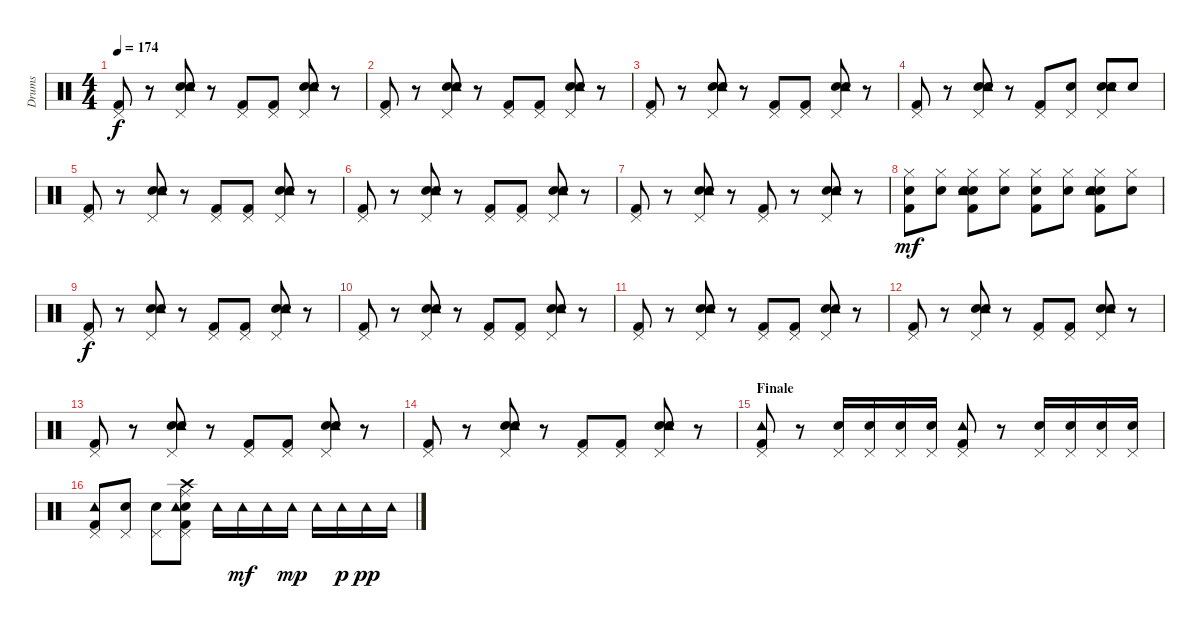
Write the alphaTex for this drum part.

\track ("Drums" "Drums") {instrument percussion}
\staff {score}
\articulation defaults
\ts (4 4)
\tempo 174
\clef neutral
\ks c
("Kick (hit) 2" "Pedal Hi-Hat (hit)").8{dy f} r.8 ("Snare (hit) 2" "Pedal Hi-Hat (hit)" "Hand Clap (hit)" "Tambourine (hit)").8 r.8 ("Kick (hit) 2" "Pedal Hi-Hat (hit)").8 ("Kick (hit) 2" "Pedal Hi-Hat (hit)").8 ("Snare (hit) 2" "Pedal Hi-Hat (hit)" "Hand Clap (hit)" "Tambourine (hit)").8 r.8 |
("Kick (hit) 2" "Pedal Hi-Hat (hit)").8 r.8 ("Snare (hit) 2" "Pedal Hi-Hat (hit)" "Hand Clap (hit)" "Tambourine (hit)").8 r.8 ("Kick (hit) 2" "Pedal Hi-Hat (hit)").8 ("Kick (hit) 2" "Pedal Hi-Hat (hit)").8 ("Snare (hit) 2" "Pedal Hi-Hat (hit)" "Hand Clap (hit)" "Tambourine (hit)").8 r.8 |
("Kick (hit) 2" "Pedal Hi-Hat (hit)").8 r.8 ("Snare (hit) 2" "Pedal Hi-Hat (hit)" "Hand Clap (hit)" "Tambourine (hit)").8 r.8 ("Kick (hit) 2" "Pedal Hi-Hat (hit)").8 ("Kick (hit) 2" "Pedal Hi-Hat (hit)").8 ("Snare (hit) 2" "Pedal Hi-Hat (hit)" "Hand Clap (hit)" "Tambourine (hit)").8 r.8 |
("Kick (hit) 2" "Pedal Hi-Hat (hit)").8 r.8 ("Snare (hit) 2" "Pedal Hi-Hat (hit)" "Hand Clap (hit)" "Tambourine (hit)").8 r.8 ("Kick (hit) 2" "Pedal Hi-Hat (hit)").8 ("Snare (hit) 2" "Pedal Hi-Hat (hit)").8 ("Snare (hit) 2" "Pedal Hi-Hat (hit)" "Hand Clap (hit)" "Tambourine (hit)").8 "Snare (hit) 2".8 |
("Kick (hit) 2" "Pedal Hi-Hat (hit)").8 r.8 ("Snare (hit) 2" "Pedal Hi-Hat (hit)" "Hand Clap (hit)" "Tambourine (hit)").8 r.8 ("Kick (hit) 2" "Pedal Hi-Hat (hit)").8 ("Kick (hit) 2" "Pedal Hi-Hat (hit)").8 ("Snare (hit) 2" "Pedal Hi-Hat (hit)" "Hand Clap (hit)" "Tambourine (hit)").8 r.8 |
("Kick (hit) 2" "Pedal Hi-Hat (hit)").8 r.8 ("Snare (hit) 2" "Pedal Hi-Hat (hit)" "Hand Clap (hit)" "Tambourine (hit)").8 r.8 ("Kick (hit) 2" "Pedal Hi-Hat (hit)").8 ("Kick (hit) 2" "Pedal Hi-Hat (hit)").8 ("Snare (hit) 2" "Pedal Hi-Hat (hit)" "Hand Clap (hit)" "Tambourine (hit)").8 r.8 |
("Kick (hit) 2" "Pedal Hi-Hat (hit)").8 r.8 ("Snare (hit) 2" "Pedal Hi-Hat (hit)" "Hand Clap (hit)" "Tambourine (hit)").8 r.8 ("Kick (hit) 2" "Pedal Hi-Hat (hit)").8 r.8 ("Snare (hit) 2" "Pedal Hi-Hat (hit)" "Hand Clap (hit)" "Tambourine (hit)").8 r.8 |
("Kick (hit) 2" "Snare (hit) 2" "Hi-Hat (closed)").8{dy mf} ("Snare (hit) 2" "Hi-Hat (closed)").8 ("Kick (hit) 2" "Snare (hit) 2" "Hi-Hat (closed)" "Hand Clap (hit)" "Tambourine (hit)").8 ("Snare (hit) 2" "Hi-Hat (closed)").8 ("Kick (hit) 2" "Snare (hit) 2" "Hi-Hat (closed)").8 ("Snare (hit) 2" "Hi-Hat (closed)").8 ("Kick (hit) 2" "Snare (hit) 2" "Hi-Hat (closed)" "Hand Clap (hit)" "Tambourine (hit)").8 ("Snare (hit) 2" "Hi-Hat (closed)").8 |
("Kick (hit) 2" "Pedal Hi-Hat (hit)").8{dy f} r.8 ("Snare (hit) 2" "Pedal Hi-Hat (hit)" "Hand Clap (hit)" "Tambourine (hit)").8 r.8 ("Kick (hit) 2" "Pedal Hi-Hat (hit)").8 ("Kick (hit) 2" "Pedal Hi-Hat (hit)").8 ("Snare (hit) 2" "Pedal Hi-Hat (hit)" "Hand Clap (hit)" "Tambourine (hit)").8 r.8 |
("Kick (hit) 2" "Pedal Hi-Hat (hit)").8 r.8 ("Snare (hit) 2" "Pedal Hi-Hat (hit)" "Hand Clap (hit)" "Tambourine (hit)").8 r.8 ("Kick (hit) 2" "Pedal Hi-Hat (hit)").8 ("Kick (hit) 2" "Pedal Hi-Hat (hit)").8 ("Snare (hit) 2" "Pedal Hi-Hat (hit)" "Hand Clap (hit)" "Tambourine (hit)").8 r.8 |
("Kick (hit) 2" "Pedal Hi-Hat (hit)").8 r.8 ("Snare (hit) 2" "Pedal Hi-Hat (hit)" "Hand Clap (hit)" "Tambourine (hit)").8 r.8 ("Kick (hit) 2" "Pedal Hi-Hat (hit)").8 ("Kick (hit) 2" "Pedal Hi-Hat (hit)").8 ("Snare (hit) 2" "Pedal Hi-Hat (hit)" "Hand Clap (hit)" "Tambourine (hit)").8 r.8 |
("Kick (hit) 2" "Pedal Hi-Hat (hit)").8 r.8 ("Snare (hit) 2" "Pedal Hi-Hat (hit)" "Hand Clap (hit)" "Tambourine (hit)").8 r.8 ("Kick (hit) 2" "Pedal Hi-Hat (hit)").8 ("Kick (hit) 2" "Pedal Hi-Hat (hit)").8 ("Snare (hit) 2" "Pedal Hi-Hat (hit)" "Hand Clap (hit)" "Tambourine (hit)").8 r.8 |
("Kick (hit) 2" "Pedal Hi-Hat (hit)").8 r.8 ("Snare (hit) 2" "Pedal Hi-Hat (hit)" "Hand Clap (hit)" "Tambourine (hit)").8 r.8 ("Kick (hit) 2" "Pedal Hi-Hat (hit)").8 ("Kick (hit) 2" "Pedal Hi-Hat (hit)").8 ("Snare (hit) 2" "Pedal Hi-Hat (hit)" "Hand Clap (hit)" "Tambourine (hit)").8 r.8 |
("Kick (hit) 2" "Pedal Hi-Hat (hit)").8 r.8 ("Snare (hit) 2" "Pedal Hi-Hat (hit)" "Hand Clap (hit)" "Tambourine (hit)").8 r.8 ("Kick (hit) 2" "Pedal Hi-Hat (hit)").8 ("Kick (hit) 2" "Pedal Hi-Hat (hit)").8 ("Snare (hit) 2" "Pedal Hi-Hat (hit)" "Hand Clap (hit)" "Tambourine (hit)").8 r.8 |
\section ("" "Finale")
("Kick (hit) 2" "Pedal Hi-Hat (hit)" "Tambourine (hit)").8 r.8 ("Snare (hit) 2" "Pedal Hi-Hat (hit)").16 ("Snare (hit) 2" "Pedal Hi-Hat (hit)").16 ("Snare (hit) 2" "Pedal Hi-Hat (hit)").16 ("Snare (hit) 2" "Pedal Hi-Hat (hit)").16 ("Kick (hit) 2" "Pedal Hi-Hat (hit)" "Tambourine (hit)").8 r.8 ("Snare (hit) 2" "Pedal Hi-Hat (hit)").16 ("Snare (hit) 2" "Pedal Hi-Hat (hit)").16 ("Snare (hit) 2" "Pedal Hi-Hat (hit)").16 ("Snare (hit) 2" "Pedal Hi-Hat (hit)").16 |
("Kick (hit) 2" "Pedal Hi-Hat (hit)" "Tambourine (hit)").8 ("Snare (hit) 2" "Pedal Hi-Hat (hit)").8 ("Snare (hit) 2" "Pedal Hi-Hat (hit)").8 ("Kick (hit) 2" "Snare (hit) 2" "Pedal Hi-Hat (hit)" "Ride (middle)" "Crash high (hit)" "Tambourine (hit)").8 "Tambourine (hit)".16 "Tambourine (hit)".16{dy mf} "Tambourine (hit)".16 "Tambourine (hit)".16{dy mp} "Tambourine (hit)".16 "Tambourine (hit)".16{dy p} "Tambourine (hit)".16{dy pp} "Tambourine (hit)".16
